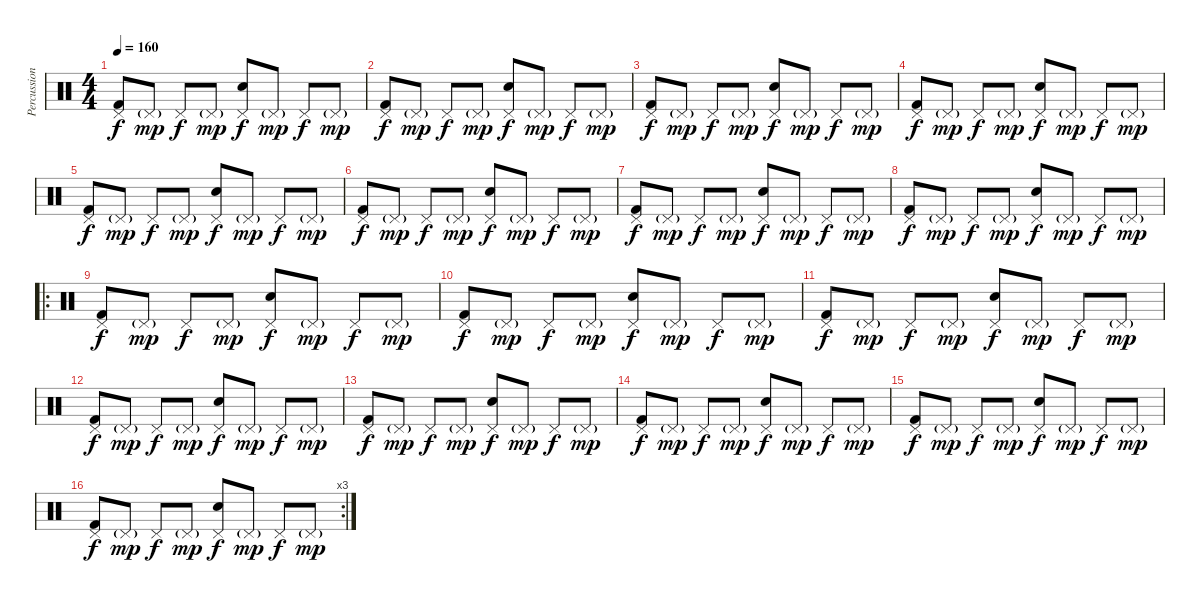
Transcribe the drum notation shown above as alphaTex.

\track ("Percussion" "Percussion") {instrument percussion}
\staff {score}
\articulation defaults
\ts (4 4)
\tempo 160
\clef neutral
\ks c
("Pedal Hi-Hat (hit)" "Kick (hit) 2").8{dy f} "Pedal Hi-Hat (hit)"{g}.8{dy mp} "Pedal Hi-Hat (hit)".8{dy f} "Pedal Hi-Hat (hit)"{g}.8{dy mp} ("Pedal Hi-Hat (hit)" "Electric Snare (hit)").8{dy f} "Pedal Hi-Hat (hit)"{g}.8{dy mp} "Pedal Hi-Hat (hit)".8{dy f} "Pedal Hi-Hat (hit)"{g}.8{dy mp} |
("Pedal Hi-Hat (hit)" "Kick (hit) 2").8{dy f} "Pedal Hi-Hat (hit)"{g}.8{dy mp} "Pedal Hi-Hat (hit)".8{dy f} "Pedal Hi-Hat (hit)"{g}.8{dy mp} ("Pedal Hi-Hat (hit)" "Electric Snare (hit)").8{dy f} "Pedal Hi-Hat (hit)"{g}.8{dy mp} "Pedal Hi-Hat (hit)".8{dy f} "Pedal Hi-Hat (hit)"{g}.8{dy mp} |
("Pedal Hi-Hat (hit)" "Kick (hit) 2").8{dy f} "Pedal Hi-Hat (hit)"{g}.8{dy mp} "Pedal Hi-Hat (hit)".8{dy f} "Pedal Hi-Hat (hit)"{g}.8{dy mp} ("Pedal Hi-Hat (hit)" "Electric Snare (hit)").8{dy f} "Pedal Hi-Hat (hit)"{g}.8{dy mp} "Pedal Hi-Hat (hit)".8{dy f} "Pedal Hi-Hat (hit)"{g}.8{dy mp} |
("Pedal Hi-Hat (hit)" "Kick (hit) 2").8{dy f} "Pedal Hi-Hat (hit)"{g}.8{dy mp} "Pedal Hi-Hat (hit)".8{dy f} "Pedal Hi-Hat (hit)"{g}.8{dy mp} ("Pedal Hi-Hat (hit)" "Electric Snare (hit)").8{dy f} "Pedal Hi-Hat (hit)"{g}.8{dy mp} "Pedal Hi-Hat (hit)".8{dy f} "Pedal Hi-Hat (hit)"{g}.8{dy mp} |
("Pedal Hi-Hat (hit)" "Kick (hit) 2").8{dy f} "Pedal Hi-Hat (hit)"{g}.8{dy mp} "Pedal Hi-Hat (hit)".8{dy f} "Pedal Hi-Hat (hit)"{g}.8{dy mp} ("Pedal Hi-Hat (hit)" "Electric Snare (hit)").8{dy f} "Pedal Hi-Hat (hit)"{g}.8{dy mp} "Pedal Hi-Hat (hit)".8{dy f} "Pedal Hi-Hat (hit)"{g}.8{dy mp} |
("Pedal Hi-Hat (hit)" "Kick (hit) 2").8{dy f} "Pedal Hi-Hat (hit)"{g}.8{dy mp} "Pedal Hi-Hat (hit)".8{dy f} "Pedal Hi-Hat (hit)"{g}.8{dy mp} ("Pedal Hi-Hat (hit)" "Electric Snare (hit)").8{dy f} "Pedal Hi-Hat (hit)"{g}.8{dy mp} "Pedal Hi-Hat (hit)".8{dy f} "Pedal Hi-Hat (hit)"{g}.8{dy mp} |
("Pedal Hi-Hat (hit)" "Kick (hit) 2").8{dy f} "Pedal Hi-Hat (hit)"{g}.8{dy mp} "Pedal Hi-Hat (hit)".8{dy f} "Pedal Hi-Hat (hit)"{g}.8{dy mp} ("Pedal Hi-Hat (hit)" "Electric Snare (hit)").8{dy f} "Pedal Hi-Hat (hit)"{g}.8{dy mp} "Pedal Hi-Hat (hit)".8{dy f} "Pedal Hi-Hat (hit)"{g}.8{dy mp} |
("Pedal Hi-Hat (hit)" "Kick (hit) 2").8{dy f} "Pedal Hi-Hat (hit)"{g}.8{dy mp} "Pedal Hi-Hat (hit)".8{dy f} "Pedal Hi-Hat (hit)"{g}.8{dy mp} ("Pedal Hi-Hat (hit)" "Electric Snare (hit)").8{dy f} "Pedal Hi-Hat (hit)"{g}.8{dy mp} "Pedal Hi-Hat (hit)".8{dy f} "Pedal Hi-Hat (hit)"{g}.8{dy mp} |
\ro
("Pedal Hi-Hat (hit)" "Kick (hit) 2").8{dy f} "Pedal Hi-Hat (hit)"{g}.8{dy mp} "Pedal Hi-Hat (hit)".8{dy f} "Pedal Hi-Hat (hit)"{g}.8{dy mp} ("Pedal Hi-Hat (hit)" "Electric Snare (hit)").8{dy f} "Pedal Hi-Hat (hit)"{g}.8{dy mp} "Pedal Hi-Hat (hit)".8{dy f} "Pedal Hi-Hat (hit)"{g}.8{dy mp} |
("Pedal Hi-Hat (hit)" "Kick (hit) 2").8{dy f} "Pedal Hi-Hat (hit)"{g}.8{dy mp} "Pedal Hi-Hat (hit)".8{dy f} "Pedal Hi-Hat (hit)"{g}.8{dy mp} ("Pedal Hi-Hat (hit)" "Electric Snare (hit)").8{dy f} "Pedal Hi-Hat (hit)"{g}.8{dy mp} "Pedal Hi-Hat (hit)".8{dy f} "Pedal Hi-Hat (hit)"{g}.8{dy mp} |
("Pedal Hi-Hat (hit)" "Kick (hit) 2").8{dy f} "Pedal Hi-Hat (hit)"{g}.8{dy mp} "Pedal Hi-Hat (hit)".8{dy f} "Pedal Hi-Hat (hit)"{g}.8{dy mp} ("Pedal Hi-Hat (hit)" "Electric Snare (hit)").8{dy f} "Pedal Hi-Hat (hit)"{g}.8{dy mp} "Pedal Hi-Hat (hit)".8{dy f} "Pedal Hi-Hat (hit)"{g}.8{dy mp} |
("Pedal Hi-Hat (hit)" "Kick (hit) 2").8{dy f} "Pedal Hi-Hat (hit)"{g}.8{dy mp} "Pedal Hi-Hat (hit)".8{dy f} "Pedal Hi-Hat (hit)"{g}.8{dy mp} ("Pedal Hi-Hat (hit)" "Electric Snare (hit)").8{dy f} "Pedal Hi-Hat (hit)"{g}.8{dy mp} "Pedal Hi-Hat (hit)".8{dy f} "Pedal Hi-Hat (hit)"{g}.8{dy mp} |
("Pedal Hi-Hat (hit)" "Kick (hit) 2").8{dy f} "Pedal Hi-Hat (hit)"{g}.8{dy mp} "Pedal Hi-Hat (hit)".8{dy f} "Pedal Hi-Hat (hit)"{g}.8{dy mp} ("Pedal Hi-Hat (hit)" "Electric Snare (hit)").8{dy f} "Pedal Hi-Hat (hit)"{g}.8{dy mp} "Pedal Hi-Hat (hit)".8{dy f} "Pedal Hi-Hat (hit)"{g}.8{dy mp} |
("Pedal Hi-Hat (hit)" "Kick (hit) 2").8{dy f} "Pedal Hi-Hat (hit)"{g}.8{dy mp} "Pedal Hi-Hat (hit)".8{dy f} "Pedal Hi-Hat (hit)"{g}.8{dy mp} ("Pedal Hi-Hat (hit)" "Electric Snare (hit)").8{dy f} "Pedal Hi-Hat (hit)"{g}.8{dy mp} "Pedal Hi-Hat (hit)".8{dy f} "Pedal Hi-Hat (hit)"{g}.8{dy mp} |
("Pedal Hi-Hat (hit)" "Kick (hit) 2").8{dy f} "Pedal Hi-Hat (hit)"{g}.8{dy mp} "Pedal Hi-Hat (hit)".8{dy f} "Pedal Hi-Hat (hit)"{g}.8{dy mp} ("Pedal Hi-Hat (hit)" "Electric Snare (hit)").8{dy f} "Pedal Hi-Hat (hit)"{g}.8{dy mp} "Pedal Hi-Hat (hit)".8{dy f} "Pedal Hi-Hat (hit)"{g}.8{dy mp} |
\rc 3
("Pedal Hi-Hat (hit)" "Kick (hit) 2").8{dy f} "Pedal Hi-Hat (hit)"{g}.8{dy mp} "Pedal Hi-Hat (hit)".8{dy f} "Pedal Hi-Hat (hit)"{g}.8{dy mp} ("Pedal Hi-Hat (hit)" "Electric Snare (hit)").8{dy f} "Pedal Hi-Hat (hit)"{g}.8{dy mp} "Pedal Hi-Hat (hit)".8{dy f} "Pedal Hi-Hat (hit)"{g}.8{dy mp}
